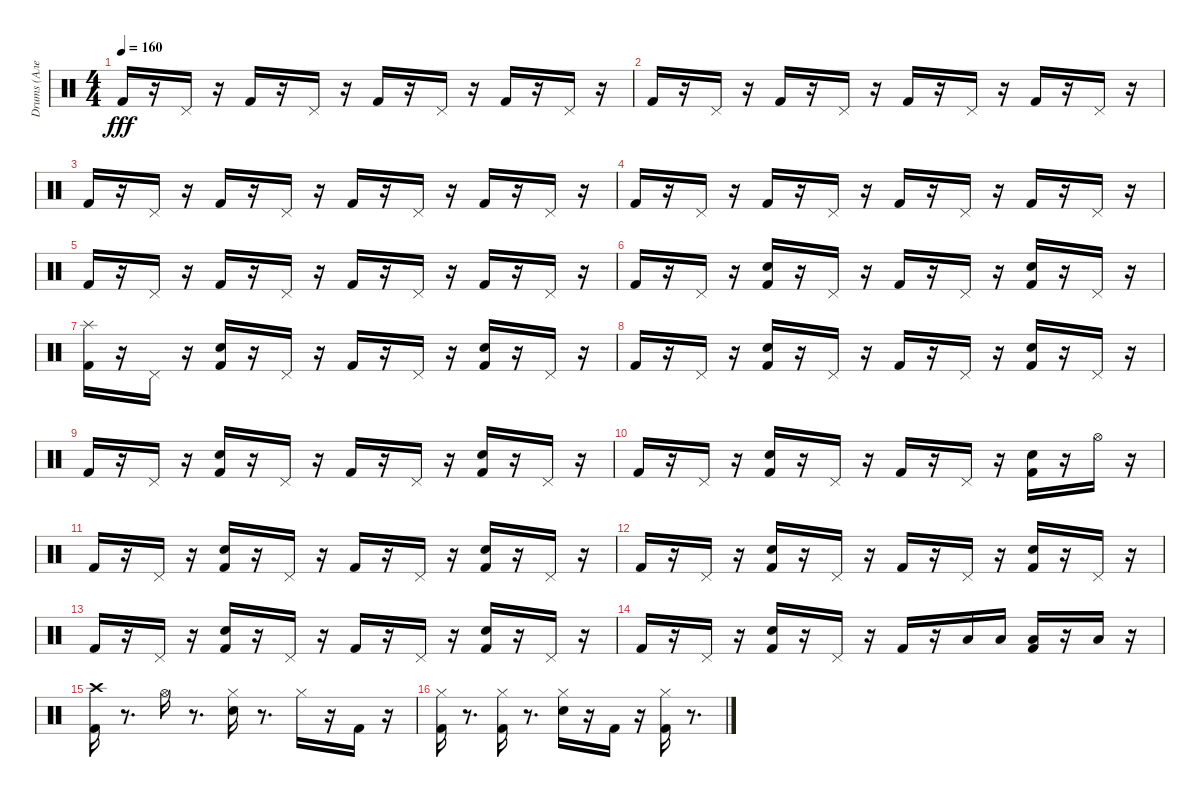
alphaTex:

\track ("Drums (Алексей Барзилович)" "Drums (Але") {instrument percussion}
\staff {score}
\articulation defaults
\ts (4 4)
\tempo 160
\clef neutral
\ks c "Kick (hit) 2".16{dy fff}
r.16 "Pedal Hi-Hat (hit)".16 r.16 "Kick (hit) 2".16 r.16 "Pedal Hi-Hat (hit)".16 r.16 "Kick (hit) 2".16 r.16 "Pedal Hi-Hat (hit)".16 r.16 "Kick (hit) 2".16 r.16 "Pedal Hi-Hat (hit)".16 r.16 |
"Kick (hit) 2".16 r.16 "Pedal Hi-Hat (hit)".16 r.16 "Kick (hit) 2".16 r.16 "Pedal Hi-Hat (hit)".16 r.16 "Kick (hit) 2".16 r.16 "Pedal Hi-Hat (hit)".16 r.16 "Kick (hit) 2".16 r.16 "Pedal Hi-Hat (hit)".16 r.16 |
"Kick (hit) 2".16 r.16 "Pedal Hi-Hat (hit)".16 r.16 "Kick (hit) 2".16 r.16 "Pedal Hi-Hat (hit)".16 r.16 "Kick (hit) 2".16 r.16 "Pedal Hi-Hat (hit)".16 r.16 "Kick (hit) 2".16 r.16 "Pedal Hi-Hat (hit)".16 r.16 |
"Kick (hit) 2".16 r.16 "Pedal Hi-Hat (hit)".16 r.16 "Kick (hit) 2".16 r.16 "Pedal Hi-Hat (hit)".16 r.16 "Kick (hit) 2".16 r.16 "Pedal Hi-Hat (hit)".16 r.16 "Kick (hit) 2".16 r.16 "Pedal Hi-Hat (hit)".16 r.16 |
"Kick (hit) 2".16 r.16 "Pedal Hi-Hat (hit)".16 r.16 "Kick (hit) 2".16 r.16 "Pedal Hi-Hat (hit)".16 r.16 "Kick (hit) 2".16 r.16 "Pedal Hi-Hat (hit)".16 r.16 "Kick (hit) 2".16 r.16 "Pedal Hi-Hat (hit)".16 r.16 |
"Kick (hit) 2".16 r.16 "Pedal Hi-Hat (hit)".16 r.16 ("Electric Snare (hit)" "Kick (hit) 2").16 r.16 "Pedal Hi-Hat (hit)".16 r.16 "Kick (hit) 2".16 r.16 "Pedal Hi-Hat (hit)".16 r.16 ("Electric Snare (hit)" "Kick (hit) 2").16 r.16 "Pedal Hi-Hat (hit)".16 r.16 |
("Splash (hit)" "Kick (hit) 2").16 r.16 "Pedal Hi-Hat (hit)".16 r.16 ("Electric Snare (hit)" "Kick (hit) 2").16 r.16 "Pedal Hi-Hat (hit)".16 r.16 "Kick (hit) 2".16 r.16 "Pedal Hi-Hat (hit)".16 r.16 ("Electric Snare (hit)" "Kick (hit) 2").16 r.16 "Pedal Hi-Hat (hit)".16 r.16 |
"Kick (hit) 2".16 r.16 "Pedal Hi-Hat (hit)".16 r.16 ("Electric Snare (hit)" "Kick (hit) 2").16 r.16 "Pedal Hi-Hat (hit)".16 r.16 "Kick (hit) 2".16 r.16 "Pedal Hi-Hat (hit)".16 r.16 ("Electric Snare (hit)" "Kick (hit) 2").16 r.16 "Pedal Hi-Hat (hit)".16 r.16 |
"Kick (hit) 2".16 r.16 "Pedal Hi-Hat (hit)".16 r.16 ("Electric Snare (hit)" "Kick (hit) 2").16 r.16 "Pedal Hi-Hat (hit)".16 r.16 "Kick (hit) 2".16 r.16 "Pedal Hi-Hat (hit)".16 r.16 ("Electric Snare (hit)" "Kick (hit) 2").16 r.16 "Pedal Hi-Hat (hit)".16 r.16 |
"Kick (hit) 2".16 r.16 "Pedal Hi-Hat (hit)".16 r.16 ("Electric Snare (hit)" "Kick (hit) 2").16 r.16 "Pedal Hi-Hat (hit)".16 r.16 "Kick (hit) 2".16 r.16 "Pedal Hi-Hat (hit)".16 r.16 ("Electric Snare (hit)" "Kick (hit) 2").16 r.16 "Hi-Hat (open)".16 r.16 |
"Kick (hit) 2".16 r.16 "Pedal Hi-Hat (hit)".16 r.16 ("Electric Snare (hit)" "Kick (hit) 2").16 r.16 "Pedal Hi-Hat (hit)".16 r.16 "Kick (hit) 2".16 r.16 "Pedal Hi-Hat (hit)".16 r.16 ("Electric Snare (hit)" "Kick (hit) 2").16 r.16 "Pedal Hi-Hat (hit)".16 r.16 |
"Kick (hit) 2".16 r.16 "Pedal Hi-Hat (hit)".16 r.16 ("Electric Snare (hit)" "Kick (hit) 2").16 r.16 "Pedal Hi-Hat (hit)".16 r.16 "Kick (hit) 2".16 r.16 "Pedal Hi-Hat (hit)".16 r.16 ("Electric Snare (hit)" "Kick (hit) 2").16 r.16 "Pedal Hi-Hat (hit)".16 r.16 |
"Kick (hit) 2".16 r.16 "Pedal Hi-Hat (hit)".16 r.16 ("Electric Snare (hit)" "Kick (hit) 2").16 r.16 "Pedal Hi-Hat (hit)".16 r.16 "Kick (hit) 2".16 r.16 "Pedal Hi-Hat (hit)".16 r.16 ("Electric Snare (hit)" "Kick (hit) 2").16 r.16 "Pedal Hi-Hat (hit)".16 r.16 |
"Kick (hit) 2".16 r.16 "Pedal Hi-Hat (hit)".16 r.16 ("Electric Snare (hit)" "Kick (hit) 2").16 r.16 "Pedal Hi-Hat (hit)".16 r.16 "Kick (hit) 2".16 r.16 "Low Tom (hit)".16 "Low Tom (hit)".16 ("Low Tom (hit)" "Kick (hit) 2").16 r.16 "Low Tom (hit)".16 r.16 |
("Kick (hit) 2" "Crash high (hit)").16 r.8{d} "Hi-Hat (open)".16 r.8{d} ("Hi-Hat (closed)" "Electric Snare (hit)").16 r.8{d} "Hi-Hat (closed)".16 r.16 "Kick (hit) 2".16 r.16 |
("Hi-Hat (closed)" "Kick (hit) 2").16 r.8{d} ("Hi-Hat (closed)" "Kick (hit) 2").16 r.8{d} ("Hi-Hat (closed)" "Electric Snare (hit)").16 r.16 "Kick (hit) 2".16 r.16 ("Kick (hit) 2" "Hi-Hat (closed)").16 r.8{d}
